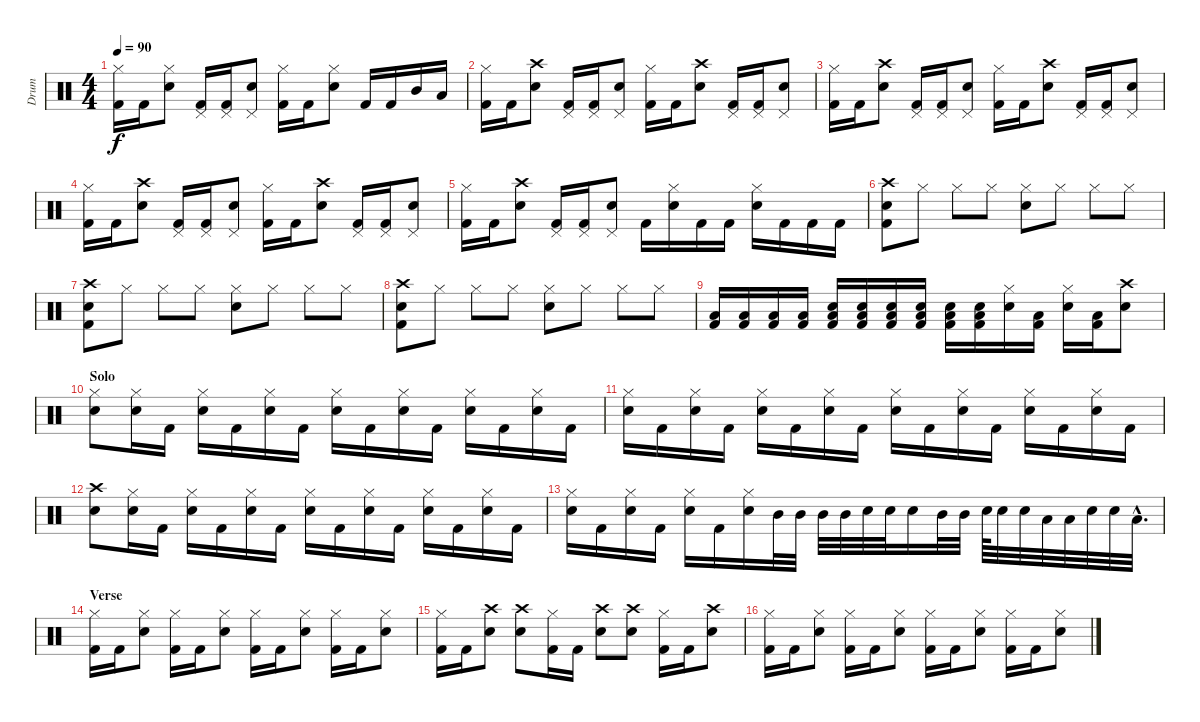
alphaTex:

\track ("Drum" "Drum") {instrument percussion}
\staff {score}
\articulation defaults
\ts (4 4)
\tempo 90
\clef neutral
\ks c
("Hi-Hat (closed)" "Kick (hit) 2").16{dy f} "Kick (hit) 2".16 ("Hi-Hat (closed)" "Electric Snare (hit)").8 ("Pedal Hi-Hat (hit)" "Kick (hit) 2").16 ("Pedal Hi-Hat (hit)" "Kick (hit) 2").16 ("Pedal Hi-Hat (hit)" "Electric Snare (hit)").8 ("Hi-Hat (closed)" "Kick (hit) 2").16 "Kick (hit) 2".16 ("Hi-Hat (closed)" "Electric Snare (hit)").8 "Kick (hit) 2".16 "Kick (hit) 2".16 "Mid Tom (hit)".16 "Low Tom (hit)".16 |
("Hi-Hat (closed)" "Kick (hit) 2").16 "Kick (hit) 2".16 ("Crash high (hit)" "Electric Snare (hit)").8 ("Pedal Hi-Hat (hit)" "Kick (hit) 2").16 ("Pedal Hi-Hat (hit)" "Kick (hit) 2").16 ("Pedal Hi-Hat (hit)" "Electric Snare (hit)").8 ("Hi-Hat (closed)" "Kick (hit) 2").16 "Kick (hit) 2".16 ("Crash high (hit)" "Electric Snare (hit)").8 ("Pedal Hi-Hat (hit)" "Kick (hit) 2").16 ("Pedal Hi-Hat (hit)" "Kick (hit) 2").16 ("Pedal Hi-Hat (hit)" "Electric Snare (hit)").8 |
("Hi-Hat (closed)" "Kick (hit) 2").16 "Kick (hit) 2".16 ("Crash high (hit)" "Electric Snare (hit)").8 ("Pedal Hi-Hat (hit)" "Kick (hit) 2").16 ("Pedal Hi-Hat (hit)" "Kick (hit) 2").16 ("Pedal Hi-Hat (hit)" "Electric Snare (hit)").8 ("Hi-Hat (closed)" "Kick (hit) 2").16 "Kick (hit) 2".16 ("Crash high (hit)" "Electric Snare (hit)").8 ("Pedal Hi-Hat (hit)" "Kick (hit) 2").16 ("Pedal Hi-Hat (hit)" "Kick (hit) 2").16 ("Pedal Hi-Hat (hit)" "Electric Snare (hit)").8 |
("Hi-Hat (closed)" "Kick (hit) 2").16 "Kick (hit) 2".16 ("Crash high (hit)" "Electric Snare (hit)").8 ("Pedal Hi-Hat (hit)" "Kick (hit) 2").16 ("Pedal Hi-Hat (hit)" "Kick (hit) 2").16 ("Pedal Hi-Hat (hit)" "Electric Snare (hit)").8 ("Hi-Hat (closed)" "Kick (hit) 2").16 "Kick (hit) 2".16 ("Crash high (hit)" "Electric Snare (hit)").8 ("Pedal Hi-Hat (hit)" "Kick (hit) 2").16 ("Pedal Hi-Hat (hit)" "Kick (hit) 2").16 ("Pedal Hi-Hat (hit)" "Electric Snare (hit)").8 |
("Hi-Hat (closed)" "Kick (hit) 2").16 "Kick (hit) 2".16 ("Crash high (hit)" "Electric Snare (hit)").8 ("Pedal Hi-Hat (hit)" "Kick (hit) 2").16 ("Pedal Hi-Hat (hit)" "Kick (hit) 2").16 ("Pedal Hi-Hat (hit)" "Electric Snare (hit)").8 "Kick (hit) 2".16 ("Hi-Hat (closed)" "Electric Snare (hit)").16 "Kick (hit) 2".16 "Kick (hit) 2".16 ("Hi-Hat (closed)" "Electric Snare (hit)").16 "Kick (hit) 2".16 "Kick (hit) 2".16 "Kick (hit) 2".16 |
("Crash high (hit)" "Electric Snare (hit)" "Kick (hit) 2").8 "Hi-Hat (closed)".8 "Hi-Hat (closed)".8 "Hi-Hat (closed)".8 ("Hi-Hat (closed)" "Electric Snare (hit)").8 "Hi-Hat (closed)".8 "Hi-Hat (closed)".8 "Hi-Hat (closed)".8 |
("Crash high (hit)" "Electric Snare (hit)" "Kick (hit) 2").8 "Hi-Hat (closed)".8 "Hi-Hat (closed)".8 "Hi-Hat (closed)".8 ("Hi-Hat (closed)" "Electric Snare (hit)").8 "Hi-Hat (closed)".8 "Hi-Hat (closed)".8 "Hi-Hat (closed)".8 |
("Crash high (hit)" "Electric Snare (hit)" "Kick (hit) 2").8 "Hi-Hat (closed)".8 "Hi-Hat (closed)".8 "Hi-Hat (closed)".8 ("Hi-Hat (closed)" "Electric Snare (hit)").8 "Hi-Hat (closed)".8 "Hi-Hat (closed)".8 "Hi-Hat (closed)".8 |
("Low Tom (hit)" "Kick (hit) 2").16 ("Low Tom (hit)" "Kick (hit) 2").16 ("Low Tom (hit)" "Kick (hit) 2").16 ("Low Tom (hit)" "Kick (hit) 2").16 ("Low Tom (hit)" "Electric Snare (hit)" "Kick (hit) 2").16 ("Low Tom (hit)" "Electric Snare (hit)" "Kick (hit) 2").16 ("Low Tom (hit)" "Electric Snare (hit)" "Kick (hit) 2").16 ("Low Tom (hit)" "Electric Snare (hit)" "Kick (hit) 2").16 ("Low Tom (hit)" "Electric Snare (hit)" "Kick (hit) 2").16 ("Low Tom (hit)" "Electric Snare (hit)" "Kick (hit) 2").16 ("Hi-Hat (closed)" "Electric Snare (hit)").16 ("Low Tom (hit)" "Kick (hit) 2").16 ("Hi-Hat (closed)" "Electric Snare (hit)").16 ("Low Tom (hit)" "Kick (hit) 2").16 ("Crash high (hit)" "Electric Snare (hit)").8 |
\section ("" "Solo")
("Hi-Hat (closed)" "Electric Snare (hit)").8 ("Hi-Hat (closed)" "Electric Snare (hit)").16 "Kick (hit) 2".16 ("Hi-Hat (closed)" "Electric Snare (hit)").16 "Kick (hit) 2".16 ("Hi-Hat (closed)" "Electric Snare (hit)").16 "Kick (hit) 2".16 ("Hi-Hat (closed)" "Electric Snare (hit)").16 "Kick (hit) 2".16 ("Hi-Hat (closed)" "Electric Snare (hit)").16 "Kick (hit) 2".16 ("Hi-Hat (closed)" "Electric Snare (hit)").16 "Kick (hit) 2".16 ("Hi-Hat (closed)" "Electric Snare (hit)").16 "Kick (hit) 2".16 |
("Hi-Hat (closed)" "Electric Snare (hit)").16 "Kick (hit) 2".16 ("Hi-Hat (closed)" "Electric Snare (hit)").16 "Kick (hit) 2".16 ("Hi-Hat (closed)" "Electric Snare (hit)").16 "Kick (hit) 2".16 ("Hi-Hat (closed)" "Electric Snare (hit)").16 "Kick (hit) 2".16 ("Hi-Hat (closed)" "Electric Snare (hit)").16 "Kick (hit) 2".16 ("Hi-Hat (closed)" "Electric Snare (hit)").16 "Kick (hit) 2".16 ("Hi-Hat (closed)" "Electric Snare (hit)").16 "Kick (hit) 2".16 ("Hi-Hat (closed)" "Electric Snare (hit)").16 "Kick (hit) 2".16 |
("Crash high (hit)" "Electric Snare (hit)").8 ("Hi-Hat (closed)" "Electric Snare (hit)").16 "Kick (hit) 2".16 ("Hi-Hat (closed)" "Electric Snare (hit)").16 "Kick (hit) 2".16 ("Hi-Hat (closed)" "Electric Snare (hit)").16 "Kick (hit) 2".16 ("Hi-Hat (closed)" "Electric Snare (hit)").16 "Kick (hit) 2".16 ("Hi-Hat (closed)" "Electric Snare (hit)").16 "Kick (hit) 2".16 ("Hi-Hat (closed)" "Electric Snare (hit)").16 "Kick (hit) 2".16 ("Hi-Hat (closed)" "Electric Snare (hit)").16 "Kick (hit) 2".16 |
("Hi-Hat (closed)" "Electric Snare (hit)").16 "Kick (hit) 2".16 ("Hi-Hat (closed)" "Electric Snare (hit)").16 "Kick (hit) 2".16 ("Hi-Hat (closed)" "Electric Snare (hit)").16 "Kick (hit) 2".16 ("Hi-Hat (closed)" "Electric Snare (hit)").16 "Mid Tom (hit)".32 "Mid Tom (hit)".32 "Mid Tom (hit)".32 "Mid Tom (hit)".32 "Electric Snare (hit)".32 "Electric Snare (hit)".32 "Electric Snare (hit)".16 "Mid Tom (hit)".32 "Mid Tom (hit)".32 "Electric Snare (hit)".64 "Electric Snare (hit)".32 "Electric Snare (hit)".32 "Low Tom (hit)".32 "Low Tom (hit)".32 "Electric Snare (hit)".32 "Electric Snare (hit)".32 "Low Tom (hit)"{hac}.32{d} |
\section ("" "Verse")
("Hi-Hat (closed)" "Kick (hit) 2").16 "Kick (hit) 2".16 ("Hi-Hat (closed)" "Electric Snare (hit)").8 ("Hi-Hat (closed)" "Kick (hit) 2").16 "Kick (hit) 2".16 ("Hi-Hat (closed)" "Electric Snare (hit)").8 ("Hi-Hat (closed)" "Kick (hit) 2").16 "Kick (hit) 2".16 ("Hi-Hat (closed)" "Electric Snare (hit)").8 ("Hi-Hat (closed)" "Kick (hit) 2").16 "Kick (hit) 2".16 ("Hi-Hat (closed)" "Electric Snare (hit)").8 |
("Hi-Hat (closed)" "Kick (hit) 2").16 "Kick (hit) 2".16 ("Crash high (hit)" "Electric Snare (hit)").8 ("Crash high (hit)" "Electric Snare (hit)").8 ("Hi-Hat (closed)" "Kick (hit) 2").16 "Kick (hit) 2".16 ("Crash high (hit)" "Electric Snare (hit)").8 ("Crash high (hit)" "Electric Snare (hit)").8 ("Hi-Hat (closed)" "Kick (hit) 2").16 "Kick (hit) 2".16 ("Crash high (hit)" "Electric Snare (hit)").8 |
("Hi-Hat (closed)" "Kick (hit) 2").16 "Kick (hit) 2".16 ("Hi-Hat (closed)" "Electric Snare (hit)").8 ("Hi-Hat (closed)" "Kick (hit) 2").16 "Kick (hit) 2".16 ("Hi-Hat (closed)" "Electric Snare (hit)").8 ("Hi-Hat (closed)" "Kick (hit) 2").16 "Kick (hit) 2".16 ("Hi-Hat (closed)" "Electric Snare (hit)").8 ("Hi-Hat (closed)" "Kick (hit) 2").16 "Kick (hit) 2".16 ("Hi-Hat (closed)" "Electric Snare (hit)").8
